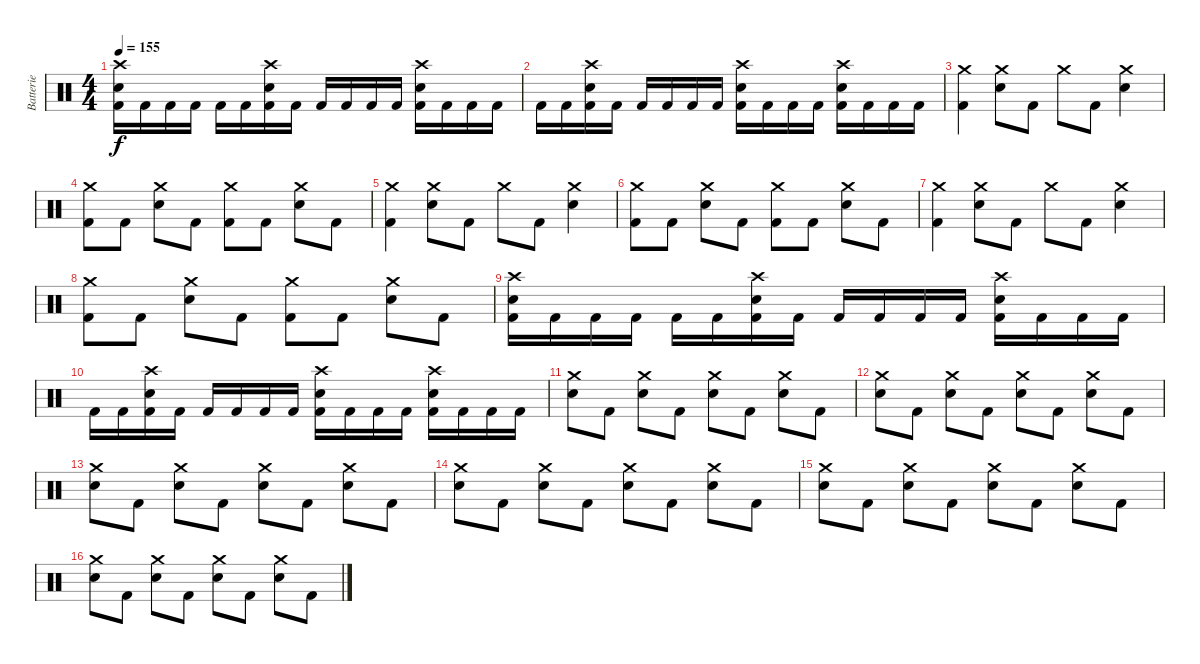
\track ("Batterie" "Batterie") {instrument percussion}
\staff {score}
\articulation defaults
\ts (4 4)
\section ("" "")
\tempo 155
\clef neutral
\ks c
("Crash high (hit)" "Electric Snare (hit)" "Kick (hit) 2").16{dy f} "Kick (hit) 2".16 "Kick (hit) 2".16 "Kick (hit) 2".16 "Kick (hit) 2".16 "Kick (hit) 2".16 ("Crash high (hit)" "Electric Snare (hit)" "Kick (hit) 2").16 "Kick (hit) 2".16 "Kick (hit) 2".16 "Kick (hit) 2".16 "Kick (hit) 2".16 "Kick (hit) 2".16 ("Crash high (hit)" "Electric Snare (hit)" "Kick (hit) 2").16 "Kick (hit) 2".16 "Kick (hit) 2".16 "Kick (hit) 2".16 |
"Kick (hit) 2".16 "Kick (hit) 2".16 ("Crash high (hit)" "Electric Snare (hit)" "Kick (hit) 2").16 "Kick (hit) 2".16 "Kick (hit) 2".16 "Kick (hit) 2".16 "Kick (hit) 2".16 "Kick (hit) 2".16 ("Crash high (hit)" "Electric Snare (hit)" "Kick (hit) 2").16 "Kick (hit) 2".16 "Kick (hit) 2".16 "Kick (hit) 2".16 ("Crash high (hit)" "Electric Snare (hit)" "Kick (hit) 2").16 "Kick (hit) 2".16 "Kick (hit) 2".16 "Kick (hit) 2".16 |
\section ("" "")
("Crash medium (hit)" "Kick (hit) 2").4 ("Crash medium (hit)" "Electric Snare (hit)").8 "Kick (hit) 2".8 "Crash medium (hit)".8 "Kick (hit) 2".8 ("Crash medium (hit)" "Electric Snare (hit)").4 |
("Crash medium (hit)" "Kick (hit) 2").8 "Kick (hit) 2".8 ("Crash medium (hit)" "Electric Snare (hit)").8 "Kick (hit) 2".8 ("Crash medium (hit)" "Kick (hit) 2").8 "Kick (hit) 2".8 ("Crash medium (hit)" "Electric Snare (hit)").8 "Kick (hit) 2".8 |
("Crash medium (hit)" "Kick (hit) 2").4 ("Crash medium (hit)" "Electric Snare (hit)").8 "Kick (hit) 2".8 "Crash medium (hit)".8 "Kick (hit) 2".8 ("Crash medium (hit)" "Electric Snare (hit)").4 |
("Crash medium (hit)" "Kick (hit) 2").8 "Kick (hit) 2".8 ("Crash medium (hit)" "Electric Snare (hit)").8 "Kick (hit) 2".8 ("Crash medium (hit)" "Kick (hit) 2").8 "Kick (hit) 2".8 ("Crash medium (hit)" "Electric Snare (hit)").8 "Kick (hit) 2".8 |
("Crash medium (hit)" "Kick (hit) 2").4 ("Crash medium (hit)" "Electric Snare (hit)").8 "Kick (hit) 2".8 "Crash medium (hit)".8 "Kick (hit) 2".8 ("Crash medium (hit)" "Electric Snare (hit)").4 |
("Crash medium (hit)" "Kick (hit) 2").8 "Kick (hit) 2".8 ("Crash medium (hit)" "Electric Snare (hit)").8 "Kick (hit) 2".8 ("Crash medium (hit)" "Kick (hit) 2").8 "Kick (hit) 2".8 ("Crash medium (hit)" "Electric Snare (hit)").8 "Kick (hit) 2".8 |
("Crash high (hit)" "Electric Snare (hit)" "Kick (hit) 2").16 "Kick (hit) 2".16 "Kick (hit) 2".16 "Kick (hit) 2".16 "Kick (hit) 2".16 "Kick (hit) 2".16 ("Crash high (hit)" "Electric Snare (hit)" "Kick (hit) 2").16 "Kick (hit) 2".16 "Kick (hit) 2".16 "Kick (hit) 2".16 "Kick (hit) 2".16 "Kick (hit) 2".16 ("Crash high (hit)" "Electric Snare (hit)" "Kick (hit) 2").16 "Kick (hit) 2".16 "Kick (hit) 2".16 "Kick (hit) 2".16 |
"Kick (hit) 2".16 "Kick (hit) 2".16 ("Crash high (hit)" "Electric Snare (hit)" "Kick (hit) 2").16 "Kick (hit) 2".16 "Kick (hit) 2".16 "Kick (hit) 2".16 "Kick (hit) 2".16 "Kick (hit) 2".16 ("Crash high (hit)" "Electric Snare (hit)" "Kick (hit) 2").16 "Kick (hit) 2".16 "Kick (hit) 2".16 "Kick (hit) 2".16 ("Crash high (hit)" "Electric Snare (hit)" "Kick (hit) 2").16 "Kick (hit) 2".16 "Kick (hit) 2".16 "Kick (hit) 2".16 |
("Crash medium (hit)" "Electric Snare (hit)").8 "Kick (hit) 2".8 ("Crash medium (hit)" "Electric Snare (hit)").8 "Kick (hit) 2".8 ("Crash medium (hit)" "Electric Snare (hit)").8 "Kick (hit) 2".8 ("Crash medium (hit)" "Electric Snare (hit)").8 "Kick (hit) 2".8 |
("Crash medium (hit)" "Electric Snare (hit)").8 "Kick (hit) 2".8 ("Crash medium (hit)" "Electric Snare (hit)").8 "Kick (hit) 2".8 ("Crash medium (hit)" "Electric Snare (hit)").8 "Kick (hit) 2".8 ("Crash medium (hit)" "Electric Snare (hit)").8 "Kick (hit) 2".8 |
("Crash medium (hit)" "Electric Snare (hit)").8 "Kick (hit) 2".8 ("Crash medium (hit)" "Electric Snare (hit)").8 "Kick (hit) 2".8 ("Crash medium (hit)" "Electric Snare (hit)").8 "Kick (hit) 2".8 ("Crash medium (hit)" "Electric Snare (hit)").8 "Kick (hit) 2".8 |
("Crash medium (hit)" "Electric Snare (hit)").8 "Kick (hit) 2".8 ("Crash medium (hit)" "Electric Snare (hit)").8 "Kick (hit) 2".8 ("Crash medium (hit)" "Electric Snare (hit)").8 "Kick (hit) 2".8 ("Crash medium (hit)" "Electric Snare (hit)").8 "Kick (hit) 2".8 |
("Crash medium (hit)" "Electric Snare (hit)").8 "Kick (hit) 2".8 ("Crash medium (hit)" "Electric Snare (hit)").8 "Kick (hit) 2".8 ("Crash medium (hit)" "Electric Snare (hit)").8 "Kick (hit) 2".8 ("Crash medium (hit)" "Electric Snare (hit)").8 "Kick (hit) 2".8 |
("Crash medium (hit)" "Electric Snare (hit)").8 "Kick (hit) 2".8 ("Crash medium (hit)" "Electric Snare (hit)").8 "Kick (hit) 2".8 ("Crash medium (hit)" "Electric Snare (hit)").8 "Kick (hit) 2".8 ("Crash medium (hit)" "Electric Snare (hit)").8 "Kick (hit) 2".8
